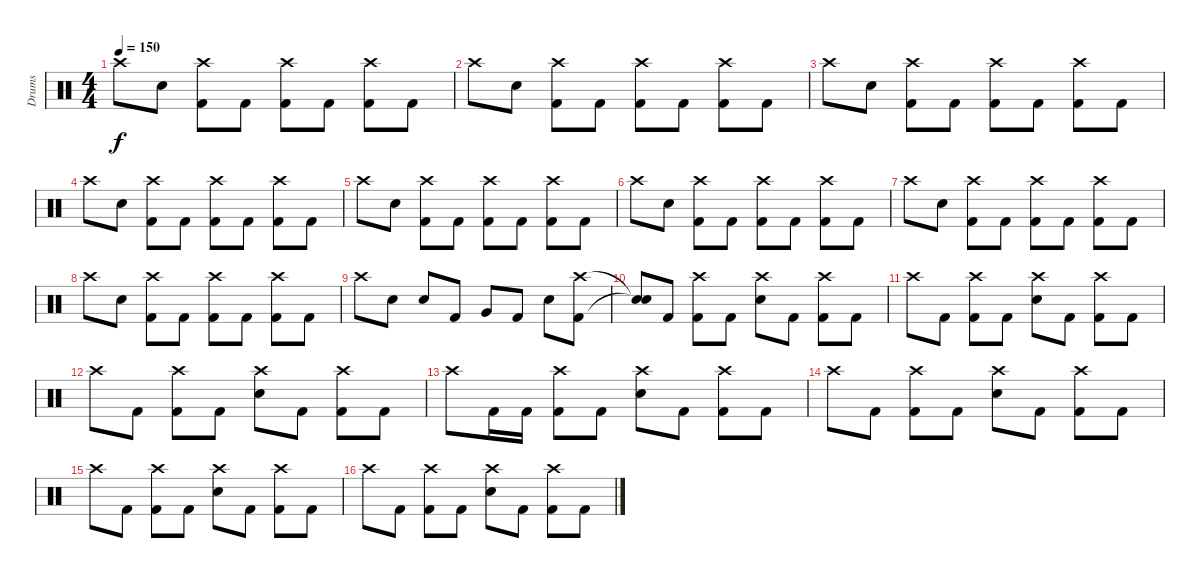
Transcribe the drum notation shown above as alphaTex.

\track ("Drums" "Drums") {instrument percussion}
\staff {score}
\articulation defaults
\ts (4 4)
\tempo 150
\clef neutral
\ks c "Crash high (hit)".8{dy f} "Electric Snare (hit)".8
("Crash high (hit)" "Kick (hit) 2").8 "Kick (hit) 2".8 ("Crash high (hit)" "Kick (hit) 2").8 "Kick (hit) 2".8 ("Crash high (hit)" "Kick (hit) 2").8 "Kick (hit) 2".8 |
"Crash high (hit)".8 "Electric Snare (hit)".8 ("Crash high (hit)" "Kick (hit) 2").8 "Kick (hit) 2".8 ("Crash high (hit)" "Kick (hit) 2").8 "Kick (hit) 2".8 ("Crash high (hit)" "Kick (hit) 2").8 "Kick (hit) 2".8 |
"Crash high (hit)".8 "Electric Snare (hit)".8 ("Crash high (hit)" "Kick (hit) 2").8 "Kick (hit) 2".8 ("Crash high (hit)" "Kick (hit) 2").8 "Kick (hit) 2".8 ("Crash high (hit)" "Kick (hit) 2").8 "Kick (hit) 2".8 |
"Crash high (hit)".8 "Electric Snare (hit)".8 ("Crash high (hit)" "Kick (hit) 2").8 "Kick (hit) 2".8 ("Crash high (hit)" "Kick (hit) 2").8 "Kick (hit) 2".8 ("Crash high (hit)" "Kick (hit) 2").8 "Kick (hit) 2".8 |
"Crash high (hit)".8 "Electric Snare (hit)".8 ("Crash high (hit)" "Kick (hit) 2").8 "Kick (hit) 2".8 ("Crash high (hit)" "Kick (hit) 2").8 "Kick (hit) 2".8 ("Crash high (hit)" "Kick (hit) 2").8 "Kick (hit) 2".8 |
"Crash high (hit)".8 "Electric Snare (hit)".8 ("Crash high (hit)" "Kick (hit) 2").8 "Kick (hit) 2".8 ("Crash high (hit)" "Kick (hit) 2").8 "Kick (hit) 2".8 ("Crash high (hit)" "Kick (hit) 2").8 "Kick (hit) 2".8 |
"Crash high (hit)".8 "Electric Snare (hit)".8 ("Crash high (hit)" "Kick (hit) 2").8 "Kick (hit) 2".8 ("Crash high (hit)" "Kick (hit) 2").8 "Kick (hit) 2".8 ("Crash high (hit)" "Kick (hit) 2").8 "Kick (hit) 2".8 |
"Crash high (hit)".8 "Electric Snare (hit)".8 ("Crash high (hit)" "Kick (hit) 2").8 "Kick (hit) 2".8 ("Crash high (hit)" "Kick (hit) 2").8 "Kick (hit) 2".8 ("Crash high (hit)" "Kick (hit) 2").8 "Kick (hit) 2".8 |
"Crash high (hit)".8 "Electric Snare (hit)".8 "Electric Snare (hit)".8 "Kick (hit) 2".8 "Very Low Tom (hit)".8 "Kick (hit) 2".8 "Electric Snare (hit)".8 ("Crash high (hit)" "Kick (hit) 2").8 |
("Snare (hit)"{t} "Snare (hit)"{t}).8 "Kick (hit) 2".8 ("Crash high (hit)" "Kick (hit) 2").8 "Kick (hit) 2".8 ("Crash high (hit)" "Electric Snare (hit)").8 "Kick (hit) 2".8 ("Crash high (hit)" "Kick (hit) 2").8 "Kick (hit) 2".8 |
"Crash high (hit)".8 "Kick (hit) 2".8 ("Crash high (hit)" "Kick (hit) 2").8 "Kick (hit) 2".8 ("Crash high (hit)" "Electric Snare (hit)").8 "Kick (hit) 2".8 ("Crash high (hit)" "Kick (hit) 2").8 "Kick (hit) 2".8 |
"Crash high (hit)".8 "Kick (hit) 2".8 ("Crash high (hit)" "Kick (hit) 2").8 "Kick (hit) 2".8 ("Crash high (hit)" "Electric Snare (hit)").8 "Kick (hit) 2".8 ("Crash high (hit)" "Kick (hit) 2").8 "Kick (hit) 2".8 |
"Crash high (hit)".8 "Kick (hit) 2".16 "Kick (hit) 2".16 ("Crash high (hit)" "Kick (hit) 2").8 "Kick (hit) 2".8 ("Crash high (hit)" "Electric Snare (hit)").8 "Kick (hit) 2".8 ("Crash high (hit)" "Kick (hit) 2").8 "Kick (hit) 2".8 |
"Crash high (hit)".8 "Kick (hit) 2".8 ("Crash high (hit)" "Kick (hit) 2").8 "Kick (hit) 2".8 ("Crash high (hit)" "Electric Snare (hit)").8 "Kick (hit) 2".8 ("Crash high (hit)" "Kick (hit) 2").8 "Kick (hit) 2".8 |
"Crash high (hit)".8 "Kick (hit) 2".8 ("Crash high (hit)" "Kick (hit) 2").8 "Kick (hit) 2".8 ("Crash high (hit)" "Electric Snare (hit)").8 "Kick (hit) 2".8 ("Crash high (hit)" "Kick (hit) 2").8 "Kick (hit) 2".8 |
"Crash high (hit)".8 "Kick (hit) 2".8 ("Crash high (hit)" "Kick (hit) 2").8 "Kick (hit) 2".8 ("Crash high (hit)" "Electric Snare (hit)").8 "Kick (hit) 2".8 ("Crash high (hit)" "Kick (hit) 2").8 "Kick (hit) 2".8
